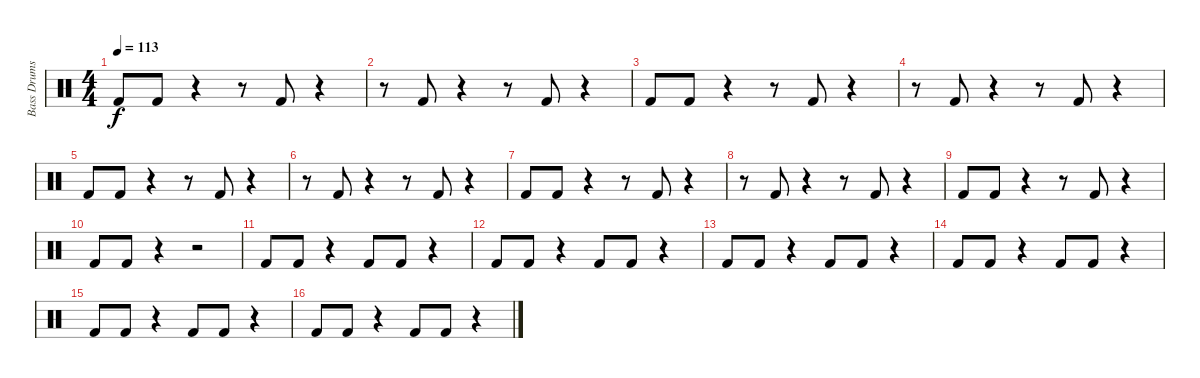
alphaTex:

\track ("Bass Drums" "Bass Drums") {instrument percussion}
\staff {score}
\articulation defaults
\ts (4 4)
\tempo 113
\clef neutral
\ks c "Kick (hit) 2".8{dy f} "Kick (hit) 2".8
r.4 r.8 "Kick (hit) 2".8 r.4 |
r.8 "Kick (hit) 2".8 r.4 r.8 "Kick (hit) 2".8 r.4 |
"Kick (hit) 2".8 "Kick (hit) 2".8 r.4 r.8 "Kick (hit) 2".8 r.4 |
r.8 "Kick (hit) 2".8 r.4 r.8 "Kick (hit) 2".8 r.4 |
"Kick (hit) 2".8 "Kick (hit) 2".8 r.4 r.8 "Kick (hit) 2".8 r.4 |
r.8 "Kick (hit) 2".8 r.4 r.8 "Kick (hit) 2".8 r.4 |
"Kick (hit) 2".8 "Kick (hit) 2".8 r.4 r.8 "Kick (hit) 2".8 r.4 |
r.8 "Kick (hit) 2".8 r.4 r.8 "Kick (hit) 2".8 r.4 |
"Kick (hit) 2".8 "Kick (hit) 2".8 r.4 r.8 "Kick (hit) 2".8 r.4 |
"Kick (hit) 2".8 "Kick (hit) 2".8 r.4 r.2 |
"Kick (hit) 2".8 "Kick (hit) 2".8 r.4 "Kick (hit) 2".8 "Kick (hit) 2".8 r.4 |
"Kick (hit) 2".8 "Kick (hit) 2".8 r.4 "Kick (hit) 2".8 "Kick (hit) 2".8 r.4 |
"Kick (hit) 2".8 "Kick (hit) 2".8 r.4 "Kick (hit) 2".8 "Kick (hit) 2".8 r.4 |
"Kick (hit) 2".8 "Kick (hit) 2".8 r.4 "Kick (hit) 2".8 "Kick (hit) 2".8 r.4 |
"Kick (hit) 2".8 "Kick (hit) 2".8 r.4 "Kick (hit) 2".8 "Kick (hit) 2".8 r.4 |
"Kick (hit) 2".8 "Kick (hit) 2".8 r.4 "Kick (hit) 2".8 "Kick (hit) 2".8 r.4
